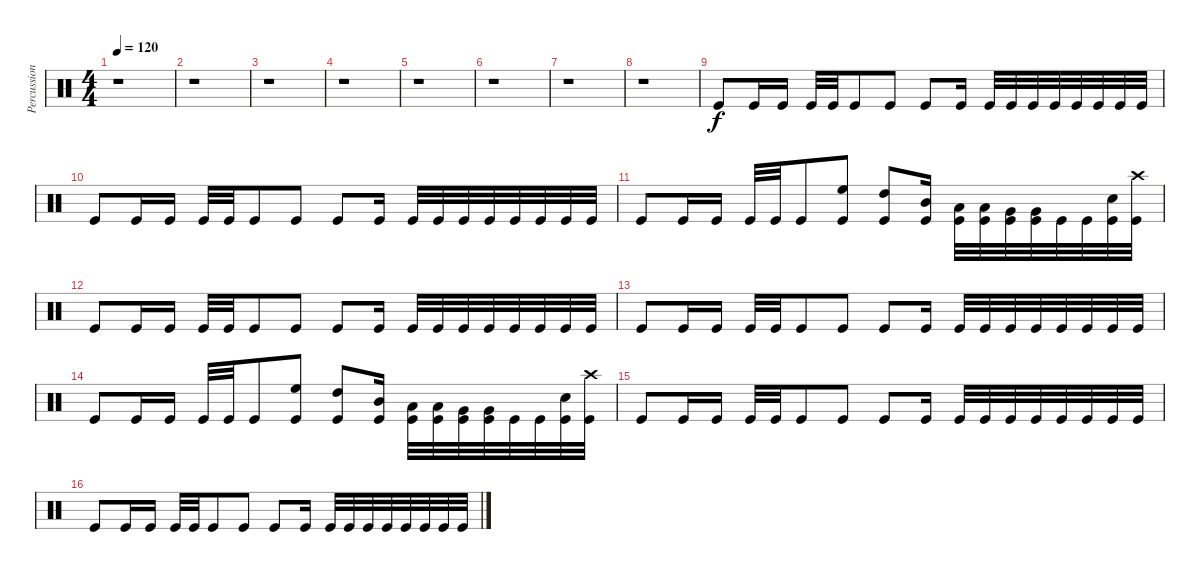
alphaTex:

\track ("Percussion" "Percussion") {instrument percussion}
\staff {score}
\articulation defaults
\ts (4 4)
\tempo 120
\clef neutral
\ks c
r.1{dy f} |
r.1 |
r.1 |
r.1 |
r.1 |
r.1 |
r.1 |
r.1 |
"Kick (hit)".8 "Kick (hit)".16 "Kick (hit)".16 "Kick (hit)".32 "Kick (hit)".32 "Kick (hit)".8 "Kick (hit)".8 "Kick (hit)".8 "Kick (hit)".16 "Kick (hit)".32 "Kick (hit)".32 "Kick (hit)".32 "Kick (hit)".32 "Kick (hit)".32 "Kick (hit)".32 "Kick (hit)".32 "Kick (hit)".32 |
"Kick (hit)".8 "Kick (hit)".16 "Kick (hit)".16 "Kick (hit)".32 "Kick (hit)".32 "Kick (hit)".8 "Kick (hit)".8 "Kick (hit)".8 "Kick (hit)".16 "Kick (hit)".32 "Kick (hit)".32 "Kick (hit)".32 "Kick (hit)".32 "Kick (hit)".32 "Kick (hit)".32 "Kick (hit)".32 "Kick (hit)".32 |
"Kick (hit)".8 "Kick (hit)".16 "Kick (hit)".16 "Kick (hit)".32 "Kick (hit)".32 "Kick (hit)".8 ("High Floor Tom (hit)" "Kick (hit)").8 ("High Tom (hit)" "Kick (hit)").8 ("Mid Tom (hit)" "Kick (hit)").16 ("Low Tom (hit)" "Kick (hit)").32 ("Low Tom (hit)" "Kick (hit)").32 ("Very Low Tom (hit)" "Kick (hit)").32 ("Very Low Tom (hit)" "Kick (hit)").32 "Kick (hit)".32 "Kick (hit)".32 ("Snare (hit) 2" "Kick (hit)").32 ("Crash high (hit)" "Kick (hit)").32 |
"Kick (hit)".8 "Kick (hit)".16 "Kick (hit)".16 "Kick (hit)".32 "Kick (hit)".32 "Kick (hit)".8 "Kick (hit)".8 "Kick (hit)".8 "Kick (hit)".16 "Kick (hit)".32 "Kick (hit)".32 "Kick (hit)".32 "Kick (hit)".32 "Kick (hit)".32 "Kick (hit)".32 "Kick (hit)".32 "Kick (hit)".32 |
"Kick (hit)".8 "Kick (hit)".16 "Kick (hit)".16 "Kick (hit)".32 "Kick (hit)".32 "Kick (hit)".8 "Kick (hit)".8 "Kick (hit)".8 "Kick (hit)".16 "Kick (hit)".32 "Kick (hit)".32 "Kick (hit)".32 "Kick (hit)".32 "Kick (hit)".32 "Kick (hit)".32 "Kick (hit)".32 "Kick (hit)".32 |
"Kick (hit)".8 "Kick (hit)".16 "Kick (hit)".16 "Kick (hit)".32 "Kick (hit)".32 "Kick (hit)".8 ("High Floor Tom (hit)" "Kick (hit)").8 ("High Tom (hit)" "Kick (hit)").8 ("Mid Tom (hit)" "Kick (hit)").16 ("Low Tom (hit)" "Kick (hit)").32 ("Low Tom (hit)" "Kick (hit)").32 ("Very Low Tom (hit)" "Kick (hit)").32 ("Very Low Tom (hit)" "Kick (hit)").32 "Kick (hit)".32 "Kick (hit)".32 ("Snare (hit) 2" "Kick (hit)").32 ("Crash high (hit)" "Kick (hit)").32 |
"Kick (hit)".8 "Kick (hit)".16 "Kick (hit)".16 "Kick (hit)".32 "Kick (hit)".32 "Kick (hit)".8 "Kick (hit)".8 "Kick (hit)".8 "Kick (hit)".16 "Kick (hit)".32 "Kick (hit)".32 "Kick (hit)".32 "Kick (hit)".32 "Kick (hit)".32 "Kick (hit)".32 "Kick (hit)".32 "Kick (hit)".32 |
"Kick (hit)".8 "Kick (hit)".16 "Kick (hit)".16 "Kick (hit)".32 "Kick (hit)".32 "Kick (hit)".8 "Kick (hit)".8 "Kick (hit)".8 "Kick (hit)".16 "Kick (hit)".32 "Kick (hit)".32 "Kick (hit)".32 "Kick (hit)".32 "Kick (hit)".32 "Kick (hit)".32 "Kick (hit)".32 "Kick (hit)".32
